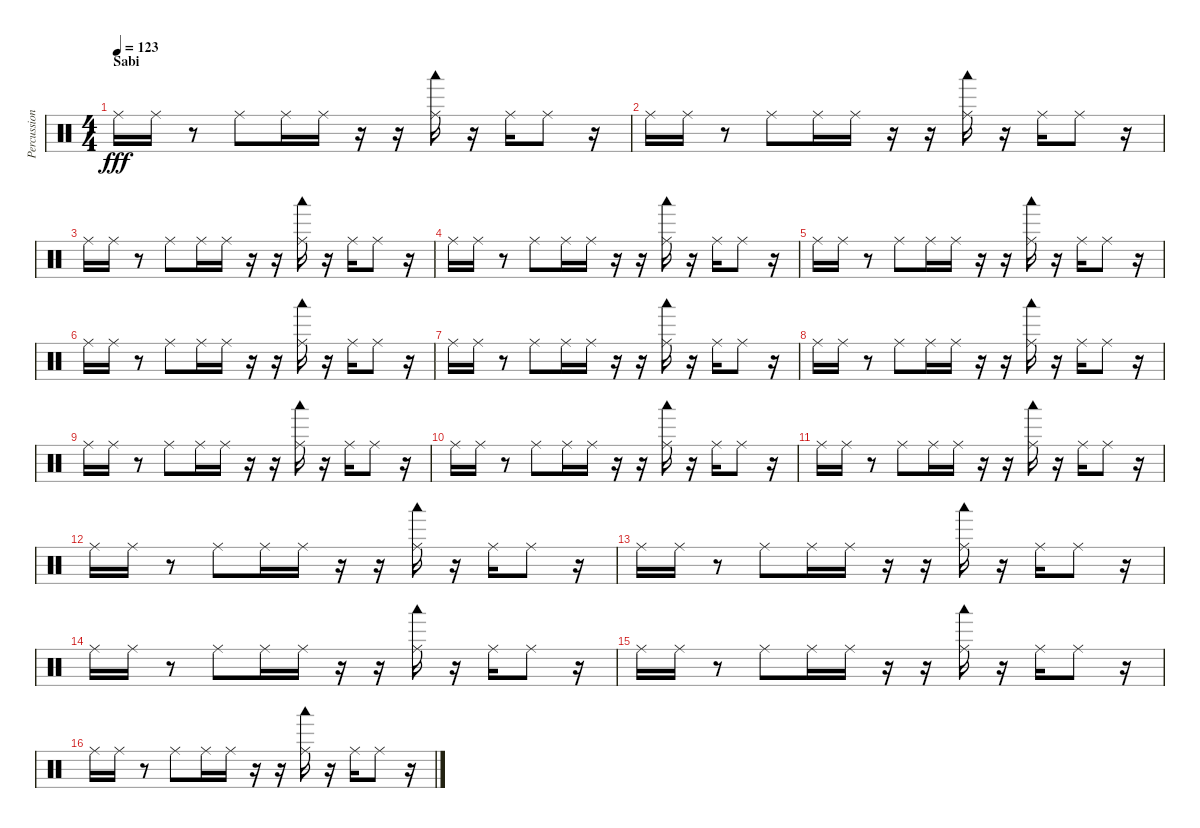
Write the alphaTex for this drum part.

\track ("Percussion" "Percussion") {instrument percussion}
\staff {score}
\articulation defaults
\ts (4 4)
\section ("" "Sabi")
\tempo 123
\clef neutral
\ks c "Ride (middle)".16{dy fff} "Ride (middle)".16
r.8 "Ride (middle)".8 "Ride (middle)".16 "Ride (middle)".16 r.16 r.16 ("Ride (middle)" "Woodblock low (hit)").16 r.16 "Ride (middle)".16 "Ride (middle)".8 r.16 |
"Ride (middle)".16 "Ride (middle)".16 r.8 "Ride (middle)".8 "Ride (middle)".16 "Ride (middle)".16 r.16 r.16 ("Ride (middle)" "Woodblock low (hit)").16 r.16 "Ride (middle)".16 "Ride (middle)".8 r.16 |
"Ride (middle)".16 "Ride (middle)".16 r.8 "Ride (middle)".8 "Ride (middle)".16 "Ride (middle)".16 r.16 r.16 ("Ride (middle)" "Woodblock low (hit)").16 r.16 "Ride (middle)".16 "Ride (middle)".8 r.16 |
"Ride (middle)".16 "Ride (middle)".16 r.8 "Ride (middle)".8 "Ride (middle)".16 "Ride (middle)".16 r.16 r.16 ("Ride (middle)" "Woodblock low (hit)").16 r.16 "Ride (middle)".16 "Ride (middle)".8 r.16 |
"Ride (middle)".16 "Ride (middle)".16 r.8 "Ride (middle)".8 "Ride (middle)".16 "Ride (middle)".16 r.16 r.16 ("Ride (middle)" "Woodblock low (hit)").16 r.16 "Ride (middle)".16 "Ride (middle)".8 r.16 |
"Ride (middle)".16 "Ride (middle)".16 r.8 "Ride (middle)".8 "Ride (middle)".16 "Ride (middle)".16 r.16 r.16 ("Ride (middle)" "Woodblock low (hit)").16 r.16 "Ride (middle)".16 "Ride (middle)".8 r.16 |
"Ride (middle)".16 "Ride (middle)".16 r.8 "Ride (middle)".8 "Ride (middle)".16 "Ride (middle)".16 r.16 r.16 ("Ride (middle)" "Woodblock low (hit)").16 r.16 "Ride (middle)".16 "Ride (middle)".8 r.16 |
"Ride (middle)".16 "Ride (middle)".16 r.8 "Ride (middle)".8 "Ride (middle)".16 "Ride (middle)".16 r.16 r.16 ("Ride (middle)" "Woodblock low (hit)").16 r.16 "Ride (middle)".16 "Ride (middle)".8 r.16 |
"Ride (middle)".16 "Ride (middle)".16 r.8 "Ride (middle)".8 "Ride (middle)".16 "Ride (middle)".16 r.16 r.16 ("Ride (middle)" "Woodblock low (hit)").16 r.16 "Ride (middle)".16 "Ride (middle)".8 r.16 |
"Ride (middle)".16 "Ride (middle)".16 r.8 "Ride (middle)".8 "Ride (middle)".16 "Ride (middle)".16 r.16 r.16 ("Ride (middle)" "Woodblock low (hit)").16 r.16 "Ride (middle)".16 "Ride (middle)".8 r.16 |
"Ride (middle)".16 "Ride (middle)".16 r.8 "Ride (middle)".8 "Ride (middle)".16 "Ride (middle)".16 r.16 r.16 ("Ride (middle)" "Woodblock low (hit)").16 r.16 "Ride (middle)".16 "Ride (middle)".8 r.16 |
"Ride (middle)".16 "Ride (middle)".16 r.8 "Ride (middle)".8 "Ride (middle)".16 "Ride (middle)".16 r.16 r.16 ("Ride (middle)" "Woodblock low (hit)").16 r.16 "Ride (middle)".16 "Ride (middle)".8 r.16 |
"Ride (middle)".16 "Ride (middle)".16 r.8 "Ride (middle)".8 "Ride (middle)".16 "Ride (middle)".16 r.16 r.16 ("Ride (middle)" "Woodblock low (hit)").16 r.16 "Ride (middle)".16 "Ride (middle)".8 r.16 |
"Ride (middle)".16 "Ride (middle)".16 r.8 "Ride (middle)".8 "Ride (middle)".16 "Ride (middle)".16 r.16 r.16 ("Ride (middle)" "Woodblock low (hit)").16 r.16 "Ride (middle)".16 "Ride (middle)".8 r.16 |
"Ride (middle)".16 "Ride (middle)".16 r.8 "Ride (middle)".8 "Ride (middle)".16 "Ride (middle)".16 r.16 r.16 ("Ride (middle)" "Woodblock low (hit)").16 r.16 "Ride (middle)".16 "Ride (middle)".8 r.16 |
"Ride (middle)".16 "Ride (middle)".16 r.8 "Ride (middle)".8 "Ride (middle)".16 "Ride (middle)".16 r.16 r.16 ("Ride (middle)" "Woodblock low (hit)").16 r.16 "Ride (middle)".16 "Ride (middle)".8 r.16
